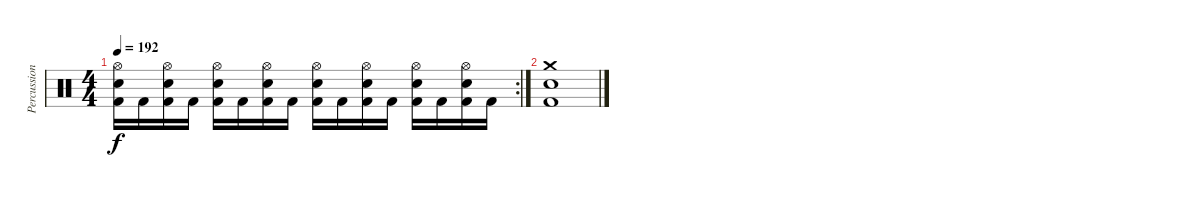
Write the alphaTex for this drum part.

\track ("Percussion" "Percussion") {instrument percussion}
\staff {score}
\articulation defaults
\rc 2
\ts (4 4)
\tempo 192
\clef neutral
\ks c
("Kick (hit) 2" "Electric Snare (hit)" "Hi-Hat (open)").16{dy f} "Kick (hit) 2".16 ("Kick (hit) 2" "Electric Snare (hit)" "Hi-Hat (open)").16 "Kick (hit) 2".16 ("Kick (hit) 2" "Electric Snare (hit)" "Hi-Hat (open)").16 "Kick (hit) 2".16 ("Kick (hit) 2" "Electric Snare (hit)" "Hi-Hat (open)").16 "Kick (hit) 2".16 ("Kick (hit) 2" "Electric Snare (hit)" "Hi-Hat (open)").16 "Kick (hit) 2".16 ("Kick (hit) 2" "Electric Snare (hit)" "Hi-Hat (open)").16 "Kick (hit) 2".16 ("Kick (hit) 2" "Electric Snare (hit)" "Hi-Hat (open)").16 "Kick (hit) 2".16 ("Kick (hit) 2" "Electric Snare (hit)" "Hi-Hat (open)").16 "Kick (hit) 2".16 |
("Crash medium (hit)" "Electric Snare (hit)" "Kick (hit) 2").1
